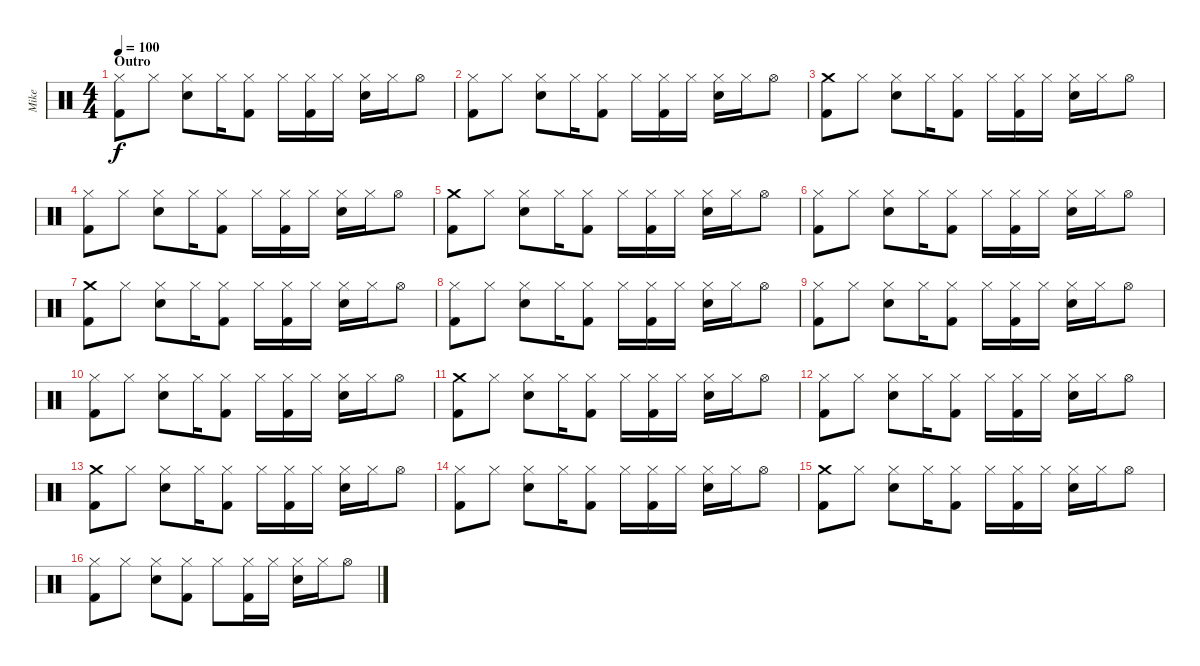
\track ("Mike" "Mike") {instrument percussion}
\staff {score}
\articulation defaults
\ts (4 4)
\section ("" "Outro")
\tempo 100
\clef neutral
\ks c
("Hi-Hat (closed)" "Kick (hit) 2").8{dy f} "Hi-Hat (closed)".8 ("Hi-Hat (closed)" "Electric Snare (hit)").8 "Hi-Hat (closed)".16 ("Hi-Hat (closed)" "Kick (hit) 2").8 "Hi-Hat (closed)".16 ("Hi-Hat (closed)" "Kick (hit) 2").16 "Hi-Hat (closed)".16 ("Hi-Hat (closed)" "Electric Snare (hit)").16 "Hi-Hat (closed)".16 "Hi-Hat (open)".8 |
("Hi-Hat (closed)" "Kick (hit) 2").8 "Hi-Hat (closed)".8 ("Hi-Hat (closed)" "Electric Snare (hit)").8 "Hi-Hat (closed)".16 ("Hi-Hat (closed)" "Kick (hit) 2").8 "Hi-Hat (closed)".16 ("Hi-Hat (closed)" "Kick (hit) 2").16 "Hi-Hat (closed)".16 ("Hi-Hat (closed)" "Electric Snare (hit)").16 "Hi-Hat (closed)".16 "Hi-Hat (open)".8 |
("Crash medium (hit)" "Kick (hit) 2").8 "Hi-Hat (closed)".8 ("Hi-Hat (closed)" "Electric Snare (hit)").8 "Hi-Hat (closed)".16 ("Hi-Hat (closed)" "Kick (hit) 2").8 "Hi-Hat (closed)".16 ("Hi-Hat (closed)" "Kick (hit) 2").16 "Hi-Hat (closed)".16 ("Hi-Hat (closed)" "Electric Snare (hit)").16 "Hi-Hat (closed)".16 "Hi-Hat (open)".8 |
("Hi-Hat (closed)" "Kick (hit) 2").8 "Hi-Hat (closed)".8 ("Hi-Hat (closed)" "Electric Snare (hit)").8 "Hi-Hat (closed)".16 ("Hi-Hat (closed)" "Kick (hit) 2").8 "Hi-Hat (closed)".16 ("Hi-Hat (closed)" "Kick (hit) 2").16 "Hi-Hat (closed)".16 ("Hi-Hat (closed)" "Electric Snare (hit)").16 "Hi-Hat (closed)".16 "Hi-Hat (open)".8 |
("Crash medium (hit)" "Kick (hit) 2").8 "Hi-Hat (closed)".8 ("Hi-Hat (closed)" "Electric Snare (hit)").8 "Hi-Hat (closed)".16 ("Hi-Hat (closed)" "Kick (hit) 2").8 "Hi-Hat (closed)".16 ("Hi-Hat (closed)" "Kick (hit) 2").16 "Hi-Hat (closed)".16 ("Hi-Hat (closed)" "Electric Snare (hit)").16 "Hi-Hat (closed)".16 "Hi-Hat (open)".8 |
("Hi-Hat (closed)" "Kick (hit) 2").8 "Hi-Hat (closed)".8 ("Hi-Hat (closed)" "Electric Snare (hit)").8 "Hi-Hat (closed)".16 ("Hi-Hat (closed)" "Kick (hit) 2").8 "Hi-Hat (closed)".16 ("Hi-Hat (closed)" "Kick (hit) 2").16 "Hi-Hat (closed)".16 ("Hi-Hat (closed)" "Electric Snare (hit)").16 "Hi-Hat (closed)".16 "Hi-Hat (open)".8 |
("Crash medium (hit)" "Kick (hit) 2").8 "Hi-Hat (closed)".8 ("Hi-Hat (closed)" "Electric Snare (hit)").8 "Hi-Hat (closed)".16 ("Hi-Hat (closed)" "Kick (hit) 2").8 "Hi-Hat (closed)".16 ("Hi-Hat (closed)" "Kick (hit) 2").16 "Hi-Hat (closed)".16 ("Hi-Hat (closed)" "Electric Snare (hit)").16 "Hi-Hat (closed)".16 "Hi-Hat (open)".8 |
("Hi-Hat (closed)" "Kick (hit) 2").8 "Hi-Hat (closed)".8 ("Hi-Hat (closed)" "Electric Snare (hit)").8 "Hi-Hat (closed)".16 ("Hi-Hat (closed)" "Kick (hit) 2").8 "Hi-Hat (closed)".16 ("Hi-Hat (closed)" "Kick (hit) 2").16 "Hi-Hat (closed)".16 ("Hi-Hat (closed)" "Electric Snare (hit)").16 "Hi-Hat (closed)".16 "Hi-Hat (open)".8 |
("Hi-Hat (closed)" "Kick (hit) 2").8 "Hi-Hat (closed)".8 ("Hi-Hat (closed)" "Electric Snare (hit)").8 "Hi-Hat (closed)".16 ("Hi-Hat (closed)" "Kick (hit) 2").8 "Hi-Hat (closed)".16 ("Hi-Hat (closed)" "Kick (hit) 2").16 "Hi-Hat (closed)".16 ("Hi-Hat (closed)" "Electric Snare (hit)").16 "Hi-Hat (closed)".16 "Hi-Hat (open)".8 |
("Hi-Hat (closed)" "Kick (hit) 2").8 "Hi-Hat (closed)".8 ("Hi-Hat (closed)" "Electric Snare (hit)").8 "Hi-Hat (closed)".16 ("Hi-Hat (closed)" "Kick (hit) 2").8 "Hi-Hat (closed)".16 ("Hi-Hat (closed)" "Kick (hit) 2").16 "Hi-Hat (closed)".16 ("Hi-Hat (closed)" "Electric Snare (hit)").16 "Hi-Hat (closed)".16 "Hi-Hat (open)".8 |
("Crash medium (hit)" "Kick (hit) 2").8 "Hi-Hat (closed)".8 ("Hi-Hat (closed)" "Electric Snare (hit)").8 "Hi-Hat (closed)".16 ("Hi-Hat (closed)" "Kick (hit) 2").8 "Hi-Hat (closed)".16 ("Hi-Hat (closed)" "Kick (hit) 2").16 "Hi-Hat (closed)".16 ("Hi-Hat (closed)" "Electric Snare (hit)").16 "Hi-Hat (closed)".16 "Hi-Hat (open)".8 |
("Hi-Hat (closed)" "Kick (hit) 2").8 "Hi-Hat (closed)".8 ("Hi-Hat (closed)" "Electric Snare (hit)").8 "Hi-Hat (closed)".16 ("Hi-Hat (closed)" "Kick (hit) 2").8 "Hi-Hat (closed)".16 ("Hi-Hat (closed)" "Kick (hit) 2").16 "Hi-Hat (closed)".16 ("Hi-Hat (closed)" "Electric Snare (hit)").16 "Hi-Hat (closed)".16 "Hi-Hat (open)".8 |
("Crash medium (hit)" "Kick (hit) 2").8 "Hi-Hat (closed)".8 ("Hi-Hat (closed)" "Electric Snare (hit)").8 "Hi-Hat (closed)".16 ("Hi-Hat (closed)" "Kick (hit) 2").8 "Hi-Hat (closed)".16 ("Hi-Hat (closed)" "Kick (hit) 2").16 "Hi-Hat (closed)".16 ("Hi-Hat (closed)" "Electric Snare (hit)").16 "Hi-Hat (closed)".16 "Hi-Hat (open)".8 |
("Hi-Hat (closed)" "Kick (hit) 2").8 "Hi-Hat (closed)".8 ("Hi-Hat (closed)" "Electric Snare (hit)").8 "Hi-Hat (closed)".16 ("Hi-Hat (closed)" "Kick (hit) 2").8 "Hi-Hat (closed)".16 ("Hi-Hat (closed)" "Kick (hit) 2").16 "Hi-Hat (closed)".16 ("Hi-Hat (closed)" "Electric Snare (hit)").16 "Hi-Hat (closed)".16 "Hi-Hat (open)".8 |
("Crash medium (hit)" "Kick (hit) 2").8 "Hi-Hat (closed)".8 ("Hi-Hat (closed)" "Electric Snare (hit)").8 "Hi-Hat (closed)".16 ("Hi-Hat (closed)" "Kick (hit) 2").8 "Hi-Hat (closed)".16 ("Hi-Hat (closed)" "Kick (hit) 2").16 "Hi-Hat (closed)".16 ("Hi-Hat (closed)" "Electric Snare (hit)").16 "Hi-Hat (closed)".16 "Hi-Hat (open)".8 |
("Hi-Hat (closed)" "Kick (hit) 2").8 "Hi-Hat (closed)".8 ("Hi-Hat (closed)" "Electric Snare (hit)").8 ("Hi-Hat (closed)" "Kick (hit) 2").8 "Hi-Hat (closed)".8 ("Hi-Hat (closed)" "Kick (hit) 2").16 "Hi-Hat (closed)".16 ("Hi-Hat (closed)" "Electric Snare (hit)").16 "Hi-Hat (closed)".16 "Hi-Hat (open)".8
